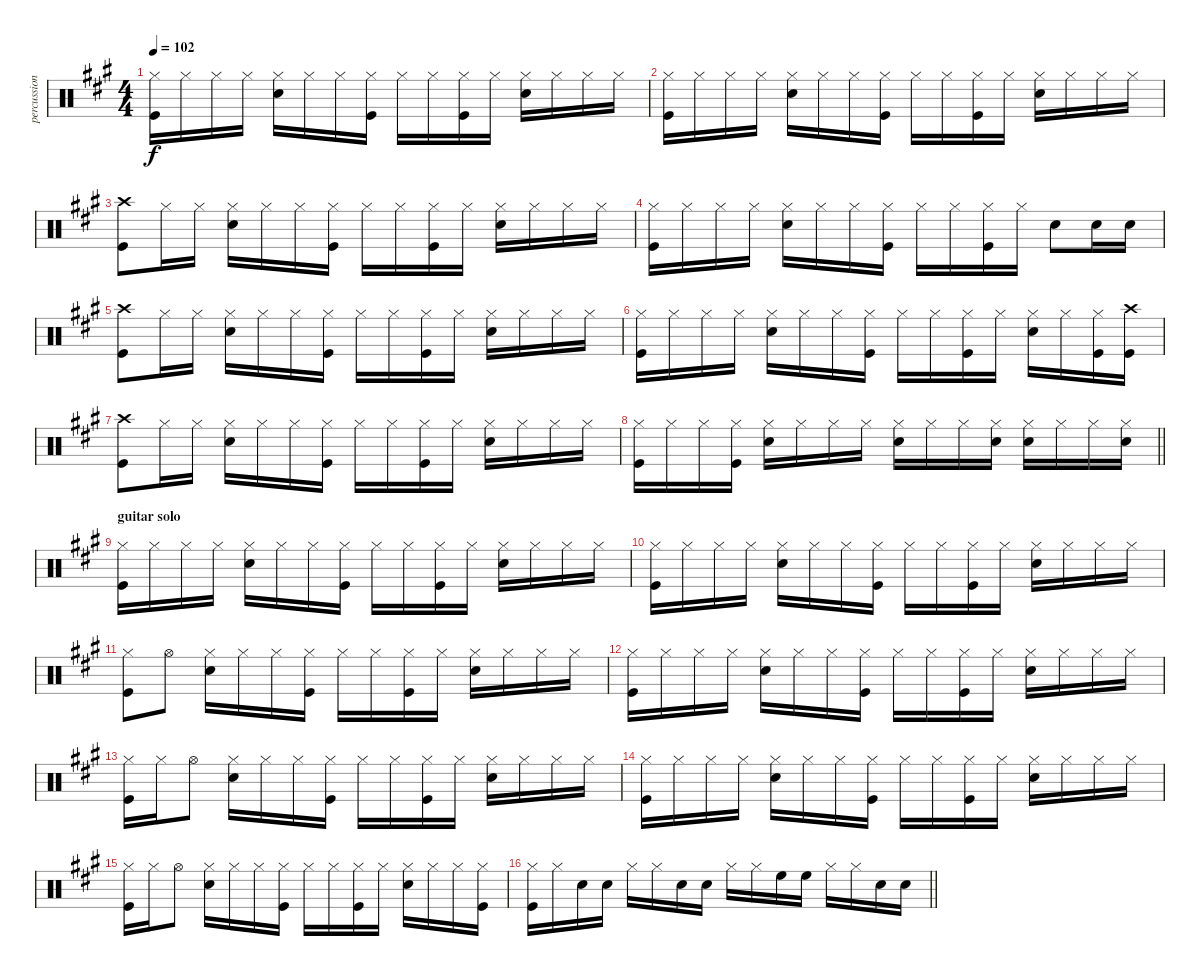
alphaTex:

\track ("percussion" "percussion") {instrument percussion}
\staff {score}
\articulation defaults
\ts (4 4)
\tempo 102
\clef neutral
\ks a
("Hi-Hat (closed)" "Kick (hit)").16{dy f} "Hi-Hat (closed)".16 "Hi-Hat (closed)".16 "Hi-Hat (closed)".16 ("Electric Snare (hit)" "Hi-Hat (closed)").16 "Hi-Hat (closed)".16 "Hi-Hat (closed)".16 ("Hi-Hat (closed)" "Kick (hit)").16 "Hi-Hat (closed)".16 "Hi-Hat (closed)".16 ("Hi-Hat (closed)" "Kick (hit)").16 "Hi-Hat (closed)".16 ("Electric Snare (hit)" "Hi-Hat (closed)").16 "Hi-Hat (closed)".16 "Hi-Hat (closed)".16 "Hi-Hat (closed)".16 |
("Hi-Hat (closed)" "Kick (hit)").16 "Hi-Hat (closed)".16 "Hi-Hat (closed)".16 "Hi-Hat (closed)".16 ("Electric Snare (hit)" "Hi-Hat (closed)").16 "Hi-Hat (closed)".16 "Hi-Hat (closed)".16 ("Hi-Hat (closed)" "Kick (hit)").16 "Hi-Hat (closed)".16 "Hi-Hat (closed)".16 ("Hi-Hat (closed)" "Kick (hit)").16 "Hi-Hat (closed)".16 ("Electric Snare (hit)" "Hi-Hat (closed)").16 "Hi-Hat (closed)".16 "Hi-Hat (closed)".16 "Hi-Hat (closed)".16 |
("Crash high (hit)" "Kick (hit)").8 "Hi-Hat (closed)".16 "Hi-Hat (closed)".16 ("Electric Snare (hit)" "Hi-Hat (closed)").16 "Hi-Hat (closed)".16 "Hi-Hat (closed)".16 ("Hi-Hat (closed)" "Kick (hit)").16 "Hi-Hat (closed)".16 "Hi-Hat (closed)".16 ("Hi-Hat (closed)" "Kick (hit)").16 "Hi-Hat (closed)".16 ("Electric Snare (hit)" "Hi-Hat (closed)").16 "Hi-Hat (closed)".16 "Hi-Hat (closed)".16 "Hi-Hat (closed)".16 |
("Hi-Hat (closed)" "Kick (hit)").16 "Hi-Hat (closed)".16 "Hi-Hat (closed)".16 "Hi-Hat (closed)".16 ("Electric Snare (hit)" "Hi-Hat (closed)").16 "Hi-Hat (closed)".16 "Hi-Hat (closed)".16 ("Hi-Hat (closed)" "Kick (hit)").16 "Hi-Hat (closed)".16 "Hi-Hat (closed)".16 ("Hi-Hat (closed)" "Kick (hit)").16 "Hi-Hat (closed)".16 "Electric Snare (hit)".8 "Electric Snare (hit)".16 "Electric Snare (hit)".16 |
("Crash high (hit)" "Kick (hit)").8 "Hi-Hat (closed)".16 "Hi-Hat (closed)".16 ("Electric Snare (hit)" "Hi-Hat (closed)").16 "Hi-Hat (closed)".16 "Hi-Hat (closed)".16 ("Hi-Hat (closed)" "Kick (hit)").16 "Hi-Hat (closed)".16 "Hi-Hat (closed)".16 ("Hi-Hat (closed)" "Kick (hit)").16 "Hi-Hat (closed)".16 ("Electric Snare (hit)" "Hi-Hat (closed)").16 "Hi-Hat (closed)".16 "Hi-Hat (closed)".16 "Hi-Hat (closed)".16 |
("Hi-Hat (closed)" "Kick (hit)").16 "Hi-Hat (closed)".16 "Hi-Hat (closed)".16 "Hi-Hat (closed)".16 ("Electric Snare (hit)" "Hi-Hat (closed)").16 "Hi-Hat (closed)".16 "Hi-Hat (closed)".16 ("Hi-Hat (closed)" "Kick (hit)").16 "Hi-Hat (closed)".16 "Hi-Hat (closed)".16 ("Hi-Hat (closed)" "Kick (hit)").16 "Hi-Hat (closed)".16 ("Electric Snare (hit)" "Hi-Hat (closed)").16 "Hi-Hat (closed)".16 ("Hi-Hat (closed)" "Kick (hit)").16 ("Crash high (hit)" "Kick (hit)").16 |
("Crash high (hit)" "Kick (hit)").8 "Hi-Hat (closed)".16 "Hi-Hat (closed)".16 ("Electric Snare (hit)" "Hi-Hat (closed)").16 "Hi-Hat (closed)".16 "Hi-Hat (closed)".16 ("Hi-Hat (closed)" "Kick (hit)").16 "Hi-Hat (closed)".16 "Hi-Hat (closed)".16 ("Hi-Hat (closed)" "Kick (hit)").16 "Hi-Hat (closed)".16 ("Electric Snare (hit)" "Hi-Hat (closed)").16 "Hi-Hat (closed)".16 "Hi-Hat (closed)".16 "Hi-Hat (closed)".16 |
\barLineRight lightlight
("Hi-Hat (closed)" "Kick (hit)").16 "Hi-Hat (closed)".16 "Hi-Hat (closed)".16 ("Hi-Hat (closed)" "Kick (hit)").16 ("Electric Snare (hit)" "Hi-Hat (closed)").16 "Hi-Hat (closed)".16 "Hi-Hat (closed)".16 "Hi-Hat (closed)".16 ("Electric Snare (hit)" "Hi-Hat (closed)").16 "Hi-Hat (closed)".16 "Hi-Hat (closed)".16 ("Electric Snare (hit)" "Hi-Hat (closed)").16 ("Electric Snare (hit)" "Hi-Hat (closed)").16 "Hi-Hat (closed)".16 "Hi-Hat (closed)".16 ("Electric Snare (hit)" "Hi-Hat (closed)").16 |
\section ("" "guitar solo")
("Hi-Hat (closed)" "Kick (hit)").16 "Hi-Hat (closed)".16 "Hi-Hat (closed)".16 "Hi-Hat (closed)".16 ("Electric Snare (hit)" "Hi-Hat (closed)").16 "Hi-Hat (closed)".16 "Hi-Hat (closed)".16 ("Hi-Hat (closed)" "Kick (hit)").16 "Hi-Hat (closed)".16 "Hi-Hat (closed)".16 ("Hi-Hat (closed)" "Kick (hit)").16 "Hi-Hat (closed)".16 ("Electric Snare (hit)" "Hi-Hat (closed)").16 "Hi-Hat (closed)".16 "Hi-Hat (closed)".16 "Hi-Hat (closed)".16 |
("Hi-Hat (closed)" "Kick (hit)").16 "Hi-Hat (closed)".16 "Hi-Hat (closed)".16 "Hi-Hat (closed)".16 ("Electric Snare (hit)" "Hi-Hat (closed)").16 "Hi-Hat (closed)".16 "Hi-Hat (closed)".16 ("Hi-Hat (closed)" "Kick (hit)").16 "Hi-Hat (closed)".16 "Hi-Hat (closed)".16 ("Hi-Hat (closed)" "Kick (hit)").16 "Hi-Hat (closed)".16 ("Electric Snare (hit)" "Hi-Hat (closed)").16 "Hi-Hat (closed)".16 "Hi-Hat (closed)".16 "Hi-Hat (closed)".16 |
("Hi-Hat (closed)" "Kick (hit)").8 "Hi-Hat (open)".8 ("Electric Snare (hit)" "Hi-Hat (closed)").16 "Hi-Hat (closed)".16 "Hi-Hat (closed)".16 ("Hi-Hat (closed)" "Kick (hit)").16 "Hi-Hat (closed)".16 "Hi-Hat (closed)".16 ("Hi-Hat (closed)" "Kick (hit)").16 "Hi-Hat (closed)".16 ("Electric Snare (hit)" "Hi-Hat (closed)").16 "Hi-Hat (closed)".16 "Hi-Hat (closed)".16 "Hi-Hat (closed)".16 |
("Hi-Hat (closed)" "Kick (hit)").16 "Hi-Hat (closed)".16 "Hi-Hat (closed)".16 "Hi-Hat (closed)".16 ("Electric Snare (hit)" "Hi-Hat (closed)").16 "Hi-Hat (closed)".16 "Hi-Hat (closed)".16 ("Hi-Hat (closed)" "Kick (hit)").16 "Hi-Hat (closed)".16 "Hi-Hat (closed)".16 ("Hi-Hat (closed)" "Kick (hit)").16 "Hi-Hat (closed)".16 ("Electric Snare (hit)" "Hi-Hat (closed)").16 "Hi-Hat (closed)".16 "Hi-Hat (closed)".16 "Hi-Hat (closed)".16 |
("Hi-Hat (closed)" "Kick (hit)").16 "Hi-Hat (closed)".16 "Hi-Hat (open)".8 ("Electric Snare (hit)" "Hi-Hat (closed)").16 "Hi-Hat (closed)".16 "Hi-Hat (closed)".16 ("Hi-Hat (closed)" "Kick (hit)").16 "Hi-Hat (closed)".16 "Hi-Hat (closed)".16 ("Hi-Hat (closed)" "Kick (hit)").16 "Hi-Hat (closed)".16 ("Electric Snare (hit)" "Hi-Hat (closed)").16 "Hi-Hat (closed)".16 "Hi-Hat (closed)".16 "Hi-Hat (closed)".16 |
("Hi-Hat (closed)" "Kick (hit)").16 "Hi-Hat (closed)".16 "Hi-Hat (closed)".16 "Hi-Hat (closed)".16 ("Electric Snare (hit)" "Hi-Hat (closed)").16 "Hi-Hat (closed)".16 "Hi-Hat (closed)".16 ("Hi-Hat (closed)" "Kick (hit)").16 "Hi-Hat (closed)".16 "Hi-Hat (closed)".16 ("Hi-Hat (closed)" "Kick (hit)").16 "Hi-Hat (closed)".16 ("Electric Snare (hit)" "Hi-Hat (closed)").16 "Hi-Hat (closed)".16 "Hi-Hat (closed)".16 "Hi-Hat (closed)".16 |
("Hi-Hat (closed)" "Kick (hit)").16 "Hi-Hat (closed)".16 "Hi-Hat (open)".8 ("Electric Snare (hit)" "Hi-Hat (closed)").16 "Hi-Hat (closed)".16 "Hi-Hat (closed)".16 ("Hi-Hat (closed)" "Kick (hit)").16 "Hi-Hat (closed)".16 "Hi-Hat (closed)".16 ("Hi-Hat (closed)" "Kick (hit)").16 "Hi-Hat (closed)".16 ("Electric Snare (hit)" "Hi-Hat (closed)").16 "Hi-Hat (closed)".16 "Hi-Hat (closed)".16 ("Hi-Hat (closed)" "Kick (hit)").16 |
\barLineRight lightlight
("Hi-Hat (closed)" "Kick (hit)").16 "Hi-Hat (closed)".16 "Electric Snare (hit)".16 "Electric Snare (hit)".16 "Hi-Hat (closed)".16 "Hi-Hat (closed)".16 "Electric Snare (hit)".16 "Electric Snare (hit)".16 "Hi-Hat (closed)".16 "Hi-Hat (closed)".16 "High Floor Tom (hit)".16 "High Floor Tom (hit)".16 "Hi-Hat (closed)".16 "Hi-Hat (closed)".16 "Electric Snare (hit)".16 "Electric Snare (hit)".16
